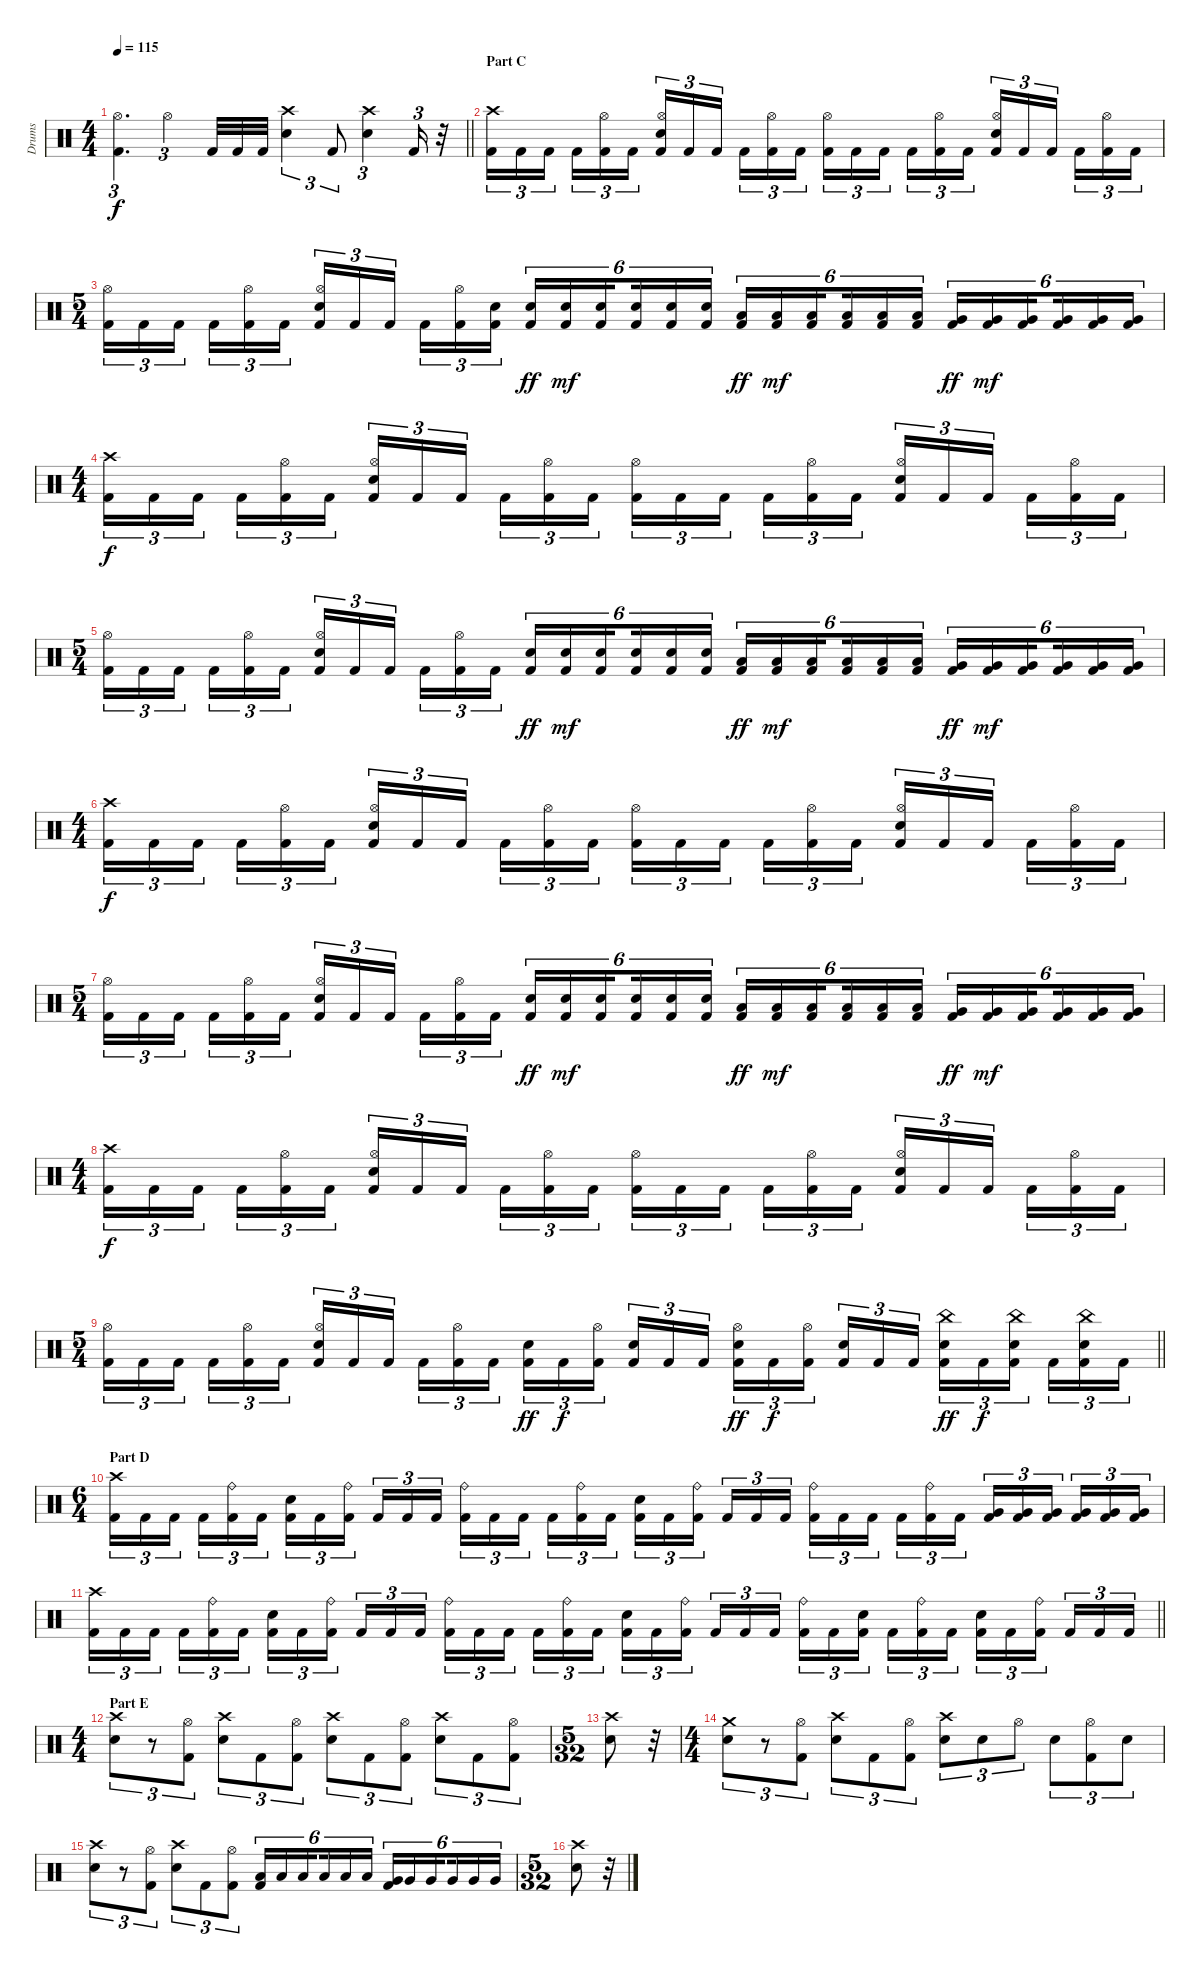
\track ("Drums" "Drums") {instrument percussion}
\staff {score}
\articulation defaults
\ts (4 4)
\tempo 115
\clef neutral
\barLineRight lightlight
\ks c
("Kick (hit) 2" "Hi-Hat (open)").4{d tu (3 2) dy f} "Hi-Hat (open)".4{tu (3 2)} "Kick (hit) 2".32 "Kick (hit) 2".32 "Kick (hit) 2".32 ("Snare (hit) 2" "Crash high (hit)").4{tu (3 2)} "Kick (hit) 2".8{tu (3 2)} ("Snare (hit) 2" "Crash high (hit)").4{tu (3 2)} "Kick (hit) 2".16{tu (3 2)} r.32 |
\section ("" "Part C")
("Kick (hit) 2" "Crash high (hit)").16{tu (3 2)} "Kick (hit) 2".16{tu (3 2)} "Kick (hit) 2".16{tu (3 2) beam splitsecondary} "Kick (hit) 2".16{tu (3 2)} ("Kick (hit) 2" "Hi-Hat (open)").16{tu (3 2)} "Kick (hit) 2".16{tu (3 2)} ("Kick (hit) 2" "Hi-Hat (open)" "Snare (hit) 2").16{tu (3 2)} "Kick (hit) 2".16{tu (3 2)} "Kick (hit) 2".16{tu (3 2) beam splitsecondary} "Kick (hit) 2".16{tu (3 2)} ("Kick (hit) 2" "Hi-Hat (open)").16{tu (3 2)} "Kick (hit) 2".16{tu (3 2)} ("Kick (hit) 2" "Hi-Hat (open)").16{tu (3 2)} "Kick (hit) 2".16{tu (3 2)} "Kick (hit) 2".16{tu (3 2) beam splitsecondary} "Kick (hit) 2".16{tu (3 2)} ("Kick (hit) 2" "Hi-Hat (open)").16{tu (3 2)} "Kick (hit) 2".16{tu (3 2)} ("Kick (hit) 2" "Hi-Hat (open)" "Snare (hit) 2").16{tu (3 2)} "Kick (hit) 2".16{tu (3 2)} "Kick (hit) 2".16{tu (3 2) beam splitsecondary} "Kick (hit) 2".16{tu (3 2)} ("Kick (hit) 2" "Hi-Hat (open)").16{tu (3 2)} "Kick (hit) 2".16{tu (3 2)} |
\ts (5 4)
("Kick (hit) 2" "Hi-Hat (open)").16{tu (3 2)} "Kick (hit) 2".16{tu (3 2)} "Kick (hit) 2".16{tu (3 2) beam splitsecondary} "Kick (hit) 2".16{tu (3 2)} ("Kick (hit) 2" "Hi-Hat (open)").16{tu (3 2)} "Kick (hit) 2".16{tu (3 2)} ("Kick (hit) 2" "Hi-Hat (open)" "Snare (hit) 2").16{tu (3 2)} "Kick (hit) 2".16{tu (3 2)} "Kick (hit) 2".16{tu (3 2) beam splitsecondary} "Kick (hit) 2".16{tu (3 2)} ("Kick (hit) 2" "Hi-Hat (open)").16{tu (3 2)} ("Kick (hit) 2" "Snare (hit) 2").16{tu (3 2)} ("Kick (hit) 2" "Snare (hit) 2").16{tu (6 4) dy ff} ("Kick (hit) 2" "Snare (hit) 2").16{tu (6 4) dy mf} ("Snare (hit) 2" "Kick (hit) 2").16{tu (6 4) beam splitsecondary} ("Snare (hit) 2" "Kick (hit) 2").16{tu (6 4)} ("Snare (hit) 2" "Kick (hit) 2").16{tu (6 4)} ("Snare (hit) 2" "Kick (hit) 2").16{tu (6 4)} ("Low Tom (hit)" "Kick (hit) 2").16{tu (6 4) dy ff} ("Low Tom (hit)" "Kick (hit) 2").16{tu (6 4) dy mf} ("Low Tom (hit)" "Kick (hit) 2").16{tu (6 4) beam splitsecondary} ("Low Tom (hit)" "Kick (hit) 2").16{tu (6 4)} ("Low Tom (hit)" "Kick (hit) 2").16{tu (6 4)} ("Low Tom (hit)" "Kick (hit) 2").16{tu (6 4)} ("Very Low Tom (hit)" "Kick (hit) 2").16{tu (6 4) dy ff} ("Very Low Tom (hit)" "Kick (hit) 2").16{tu (6 4) dy mf} ("Very Low Tom (hit)" "Kick (hit) 2").16{tu (6 4) beam splitsecondary} ("Very Low Tom (hit)" "Kick (hit) 2").16{tu (6 4)} ("Very Low Tom (hit)" "Kick (hit) 2").16{tu (6 4)} ("Very Low Tom (hit)" "Kick (hit) 2").16{tu (6 4)} |
\ts (4 4)
("Kick (hit) 2" "Crash high (hit)").16{tu (3 2) dy f} "Kick (hit) 2".16{tu (3 2)} "Kick (hit) 2".16{tu (3 2) beam splitsecondary} "Kick (hit) 2".16{tu (3 2)} ("Kick (hit) 2" "Hi-Hat (open)").16{tu (3 2)} "Kick (hit) 2".16{tu (3 2)} ("Kick (hit) 2" "Hi-Hat (open)" "Snare (hit) 2").16{tu (3 2)} "Kick (hit) 2".16{tu (3 2)} "Kick (hit) 2".16{tu (3 2) beam splitsecondary} "Kick (hit) 2".16{tu (3 2)} ("Kick (hit) 2" "Hi-Hat (open)").16{tu (3 2)} "Kick (hit) 2".16{tu (3 2)} ("Kick (hit) 2" "Hi-Hat (open)").16{tu (3 2)} "Kick (hit) 2".16{tu (3 2)} "Kick (hit) 2".16{tu (3 2) beam splitsecondary} "Kick (hit) 2".16{tu (3 2)} ("Kick (hit) 2" "Hi-Hat (open)").16{tu (3 2)} "Kick (hit) 2".16{tu (3 2)} ("Kick (hit) 2" "Hi-Hat (open)" "Snare (hit) 2").16{tu (3 2)} "Kick (hit) 2".16{tu (3 2)} "Kick (hit) 2".16{tu (3 2) beam splitsecondary} "Kick (hit) 2".16{tu (3 2)} ("Kick (hit) 2" "Hi-Hat (open)").16{tu (3 2)} "Kick (hit) 2".16{tu (3 2)} |
\ts (5 4)
("Kick (hit) 2" "Hi-Hat (open)").16{tu (3 2)} "Kick (hit) 2".16{tu (3 2)} "Kick (hit) 2".16{tu (3 2) beam splitsecondary} "Kick (hit) 2".16{tu (3 2)} ("Kick (hit) 2" "Hi-Hat (open)").16{tu (3 2)} "Kick (hit) 2".16{tu (3 2)} ("Kick (hit) 2" "Hi-Hat (open)" "Snare (hit) 2").16{tu (3 2)} "Kick (hit) 2".16{tu (3 2)} "Kick (hit) 2".16{tu (3 2) beam splitsecondary} "Kick (hit) 2".16{tu (3 2)} ("Kick (hit) 2" "Hi-Hat (open)").16{tu (3 2)} "Kick (hit) 2".16{tu (3 2)} ("Kick (hit) 2" "Snare (hit) 2").16{tu (6 4) dy ff} ("Kick (hit) 2" "Snare (hit) 2").16{tu (6 4) dy mf} ("Snare (hit) 2" "Kick (hit) 2").16{tu (6 4) beam splitsecondary} ("Snare (hit) 2" "Kick (hit) 2").16{tu (6 4)} ("Snare (hit) 2" "Kick (hit) 2").16{tu (6 4)} ("Snare (hit) 2" "Kick (hit) 2").16{tu (6 4)} ("Low Tom (hit)" "Kick (hit) 2").16{tu (6 4) dy ff} ("Low Tom (hit)" "Kick (hit) 2").16{tu (6 4) dy mf} ("Low Tom (hit)" "Kick (hit) 2").16{tu (6 4) beam splitsecondary} ("Low Tom (hit)" "Kick (hit) 2").16{tu (6 4)} ("Low Tom (hit)" "Kick (hit) 2").16{tu (6 4)} ("Low Tom (hit)" "Kick (hit) 2").16{tu (6 4)} ("Very Low Tom (hit)" "Kick (hit) 2").16{tu (6 4) dy ff} ("Very Low Tom (hit)" "Kick (hit) 2").16{tu (6 4) dy mf} ("Very Low Tom (hit)" "Kick (hit) 2").16{tu (6 4) beam splitsecondary} ("Very Low Tom (hit)" "Kick (hit) 2").16{tu (6 4)} ("Very Low Tom (hit)" "Kick (hit) 2").16{tu (6 4)} ("Very Low Tom (hit)" "Kick (hit) 2").16{tu (6 4)} |
\ts (4 4)
("Kick (hit) 2" "Crash high (hit)").16{tu (3 2) dy f} "Kick (hit) 2".16{tu (3 2)} "Kick (hit) 2".16{tu (3 2) beam splitsecondary} "Kick (hit) 2".16{tu (3 2)} ("Kick (hit) 2" "Hi-Hat (open)").16{tu (3 2)} "Kick (hit) 2".16{tu (3 2)} ("Kick (hit) 2" "Hi-Hat (open)" "Snare (hit) 2").16{tu (3 2)} "Kick (hit) 2".16{tu (3 2)} "Kick (hit) 2".16{tu (3 2) beam splitsecondary} "Kick (hit) 2".16{tu (3 2)} ("Kick (hit) 2" "Hi-Hat (open)").16{tu (3 2)} "Kick (hit) 2".16{tu (3 2)} ("Kick (hit) 2" "Hi-Hat (open)").16{tu (3 2)} "Kick (hit) 2".16{tu (3 2)} "Kick (hit) 2".16{tu (3 2) beam splitsecondary} "Kick (hit) 2".16{tu (3 2)} ("Kick (hit) 2" "Hi-Hat (open)").16{tu (3 2)} "Kick (hit) 2".16{tu (3 2)} ("Kick (hit) 2" "Hi-Hat (open)" "Snare (hit) 2").16{tu (3 2)} "Kick (hit) 2".16{tu (3 2)} "Kick (hit) 2".16{tu (3 2) beam splitsecondary} "Kick (hit) 2".16{tu (3 2)} ("Kick (hit) 2" "Hi-Hat (open)").16{tu (3 2)} "Kick (hit) 2".16{tu (3 2)} |
\ts (5 4)
("Kick (hit) 2" "Hi-Hat (open)").16{tu (3 2)} "Kick (hit) 2".16{tu (3 2)} "Kick (hit) 2".16{tu (3 2) beam splitsecondary} "Kick (hit) 2".16{tu (3 2)} ("Kick (hit) 2" "Hi-Hat (open)").16{tu (3 2)} "Kick (hit) 2".16{tu (3 2)} ("Kick (hit) 2" "Hi-Hat (open)" "Snare (hit) 2").16{tu (3 2)} "Kick (hit) 2".16{tu (3 2)} "Kick (hit) 2".16{tu (3 2) beam splitsecondary} "Kick (hit) 2".16{tu (3 2)} ("Kick (hit) 2" "Hi-Hat (open)").16{tu (3 2)} "Kick (hit) 2".16{tu (3 2)} ("Kick (hit) 2" "Snare (hit) 2").16{tu (6 4) dy ff} ("Kick (hit) 2" "Snare (hit) 2").16{tu (6 4) dy mf} ("Snare (hit) 2" "Kick (hit) 2").16{tu (6 4) beam splitsecondary} ("Snare (hit) 2" "Kick (hit) 2").16{tu (6 4)} ("Snare (hit) 2" "Kick (hit) 2").16{tu (6 4)} ("Snare (hit) 2" "Kick (hit) 2").16{tu (6 4)} ("Low Tom (hit)" "Kick (hit) 2").16{tu (6 4) dy ff} ("Low Tom (hit)" "Kick (hit) 2").16{tu (6 4) dy mf} ("Low Tom (hit)" "Kick (hit) 2").16{tu (6 4) beam splitsecondary} ("Low Tom (hit)" "Kick (hit) 2").16{tu (6 4)} ("Low Tom (hit)" "Kick (hit) 2").16{tu (6 4)} ("Low Tom (hit)" "Kick (hit) 2").16{tu (6 4)} ("Very Low Tom (hit)" "Kick (hit) 2").16{tu (6 4) dy ff} ("Very Low Tom (hit)" "Kick (hit) 2").16{tu (6 4) dy mf} ("Very Low Tom (hit)" "Kick (hit) 2").16{tu (6 4) beam splitsecondary} ("Very Low Tom (hit)" "Kick (hit) 2").16{tu (6 4)} ("Very Low Tom (hit)" "Kick (hit) 2").16{tu (6 4)} ("Very Low Tom (hit)" "Kick (hit) 2").16{tu (6 4)} |
\ts (4 4)
("Kick (hit) 2" "Crash high (hit)").16{tu (3 2) dy f} "Kick (hit) 2".16{tu (3 2)} "Kick (hit) 2".16{tu (3 2) beam splitsecondary} "Kick (hit) 2".16{tu (3 2)} ("Kick (hit) 2" "Hi-Hat (open)").16{tu (3 2)} "Kick (hit) 2".16{tu (3 2)} ("Kick (hit) 2" "Hi-Hat (open)" "Snare (hit) 2").16{tu (3 2)} "Kick (hit) 2".16{tu (3 2)} "Kick (hit) 2".16{tu (3 2) beam splitsecondary} "Kick (hit) 2".16{tu (3 2)} ("Kick (hit) 2" "Hi-Hat (open)").16{tu (3 2)} "Kick (hit) 2".16{tu (3 2)} ("Kick (hit) 2" "Hi-Hat (open)").16{tu (3 2)} "Kick (hit) 2".16{tu (3 2)} "Kick (hit) 2".16{tu (3 2) beam splitsecondary} "Kick (hit) 2".16{tu (3 2)} ("Kick (hit) 2" "Hi-Hat (open)").16{tu (3 2)} "Kick (hit) 2".16{tu (3 2)} ("Kick (hit) 2" "Hi-Hat (open)" "Snare (hit) 2").16{tu (3 2)} "Kick (hit) 2".16{tu (3 2)} "Kick (hit) 2".16{tu (3 2) beam splitsecondary} "Kick (hit) 2".16{tu (3 2)} ("Kick (hit) 2" "Hi-Hat (open)").16{tu (3 2)} "Kick (hit) 2".16{tu (3 2)} |
\ts (5 4)
\barLineRight lightlight
("Kick (hit) 2" "Hi-Hat (open)").16{tu (3 2)} "Kick (hit) 2".16{tu (3 2)} "Kick (hit) 2".16{tu (3 2) beam splitsecondary} "Kick (hit) 2".16{tu (3 2)} ("Kick (hit) 2" "Hi-Hat (open)").16{tu (3 2)} "Kick (hit) 2".16{tu (3 2)} ("Kick (hit) 2" "Hi-Hat (open)" "Snare (hit) 2").16{tu (3 2)} "Kick (hit) 2".16{tu (3 2)} "Kick (hit) 2".16{tu (3 2) beam splitsecondary} "Kick (hit) 2".16{tu (3 2)} ("Kick (hit) 2" "Hi-Hat (open)").16{tu (3 2)} "Kick (hit) 2".16{tu (3 2)} ("Kick (hit) 2" "Snare (hit) 2").16{tu (3 2) dy ff} "Kick (hit) 2".16{tu (3 2) dy f} ("Hi-Hat (open)" "Kick (hit) 2").16{tu (3 2) beam splitsecondary} ("Snare (hit) 2" "Kick (hit) 2").16{tu (3 2)} "Kick (hit) 2".16{tu (3 2)} "Kick (hit) 2".16{tu (3 2)} ("Snare (hit) 2" "Kick (hit) 2" "Hi-Hat (open)").16{tu (3 2) dy ff} "Kick (hit) 2".16{tu (3 2) dy f} ("Hi-Hat (open)" "Kick (hit) 2").16{tu (3 2) beam splitsecondary} ("Snare (hit) 2" "Kick (hit) 2").16{tu (3 2)} "Kick (hit) 2".16{tu (3 2)} "Kick (hit) 2".16{tu (3 2)} ("Snare (hit) 2" "Kick (hit) 2" "China (hit)").16{tu (3 2) dy ff} "Kick (hit) 2".16{tu (3 2) dy f} ("Snare (hit) 2" "Kick (hit) 2" "China (hit)").16{tu (3 2) beam splitsecondary} "Kick (hit) 2".16{tu (3 2)} ("Snare (hit) 2" "Kick (hit) 2" "China (hit)").16{tu (3 2)} "Kick (hit) 2".16{tu (3 2)} |
\ts (6 4)
\section ("" "Part D")
("Kick (hit) 2" "Crash high (hit)").16{tu (3 2)} "Kick (hit) 2".16{tu (3 2)} "Kick (hit) 2".16{tu (3 2) beam splitsecondary} "Kick (hit) 2".16{tu (3 2)} ("Kick (hit) 2" "Ride (bell)").16{tu (3 2)} "Kick (hit) 2".16{tu (3 2) beam splitsecondary} ("Kick (hit) 2" "Snare (hit) 2").16{tu (3 2)} "Kick (hit) 2".16{tu (3 2)} ("Kick (hit) 2" "Ride (bell)").16{tu (3 2) beam splitsecondary} "Kick (hit) 2".16{tu (3 2)} "Kick (hit) 2".16{tu (3 2)} "Kick (hit) 2".16{tu (3 2) beam splitsecondary} ("Kick (hit) 2" "Ride (bell)").16{tu (3 2)} "Kick (hit) 2".16{tu (3 2)} "Kick (hit) 2".16{tu (3 2) beam splitsecondary} "Kick (hit) 2".16{tu (3 2)} ("Kick (hit) 2" "Ride (bell)").16{tu (3 2)} "Kick (hit) 2".16{tu (3 2)} ("Kick (hit) 2" "Snare (hit) 2").16{tu (3 2)} "Kick (hit) 2".16{tu (3 2)} ("Kick (hit) 2" "Ride (bell)").16{tu (3 2) beam splitsecondary} "Kick (hit) 2".16{tu (3 2)} "Kick (hit) 2".16{tu (3 2)} "Kick (hit) 2".16{tu (3 2) beam splitsecondary} ("Kick (hit) 2" "Ride (bell)").16{tu (3 2)} "Kick (hit) 2".16{tu (3 2)} "Kick (hit) 2".16{tu (3 2) beam splitsecondary} "Kick (hit) 2".16{tu (3 2)} ("Kick (hit) 2" "Ride (bell)").16{tu (3 2)} "Kick (hit) 2".16{tu (3 2) beam splitsecondary} ("Very Low Tom (hit)" "Kick (hit) 2").16{tu (3 2)} ("Very Low Tom (hit)" "Kick (hit) 2").16{tu (3 2)} ("Very Low Tom (hit)" "Kick (hit) 2").16{tu (3 2) beam splitsecondary} ("Very Low Tom (hit)" "Kick (hit) 2").16{tu (3 2)} ("Very Low Tom (hit)" "Kick (hit) 2").16{tu (3 2)} ("Very Low Tom (hit)" "Kick (hit) 2").16{tu (3 2)} |
\barLineRight lightlight
("Kick (hit) 2" "Crash high (hit)").16{tu (3 2)} "Kick (hit) 2".16{tu (3 2)} "Kick (hit) 2".16{tu (3 2) beam splitsecondary} "Kick (hit) 2".16{tu (3 2)} ("Kick (hit) 2" "Ride (bell)").16{tu (3 2)} "Kick (hit) 2".16{tu (3 2) beam splitsecondary} ("Kick (hit) 2" "Snare (hit) 2").16{tu (3 2)} "Kick (hit) 2".16{tu (3 2)} ("Kick (hit) 2" "Ride (bell)").16{tu (3 2) beam splitsecondary} "Kick (hit) 2".16{tu (3 2)} "Kick (hit) 2".16{tu (3 2)} "Kick (hit) 2".16{tu (3 2) beam splitsecondary} ("Kick (hit) 2" "Ride (bell)").16{tu (3 2)} "Kick (hit) 2".16{tu (3 2)} "Kick (hit) 2".16{tu (3 2) beam splitsecondary} "Kick (hit) 2".16{tu (3 2)} ("Kick (hit) 2" "Ride (bell)").16{tu (3 2)} "Kick (hit) 2".16{tu (3 2)} ("Kick (hit) 2" "Snare (hit) 2").16{tu (3 2)} "Kick (hit) 2".16{tu (3 2)} ("Kick (hit) 2" "Ride (bell)").16{tu (3 2) beam splitsecondary} "Kick (hit) 2".16{tu (3 2)} "Kick (hit) 2".16{tu (3 2)} "Kick (hit) 2".16{tu (3 2) beam splitsecondary} ("Kick (hit) 2" "Ride (bell)").16{tu (3 2)} "Kick (hit) 2".16{tu (3 2)} ("Kick (hit) 2" "Snare (hit) 2").16{tu (3 2) beam splitsecondary} "Kick (hit) 2".16{tu (3 2)} ("Kick (hit) 2" "Ride (bell)").16{tu (3 2)} "Kick (hit) 2".16{tu (3 2) beam splitsecondary} ("Snare (hit) 2" "Kick (hit) 2").16{tu (3 2)} "Kick (hit) 2".16{tu (3 2)} ("Ride (bell)" "Kick (hit) 2").16{tu (3 2) beam splitsecondary} "Kick (hit) 2".16{tu (3 2)} "Kick (hit) 2".16{tu (3 2)} "Kick (hit) 2".16{tu (3 2)} |
\ts (4 4)
\section ("" "Part E")
("Crash high (hit)" "Snare (hit) 2").8{tu (3 2)} r.8{tu (3 2)} ("Hi-Hat (open)" "Kick (hit) 2").8{tu (3 2)} ("Crash high (hit)" "Snare (hit) 2").8{tu (3 2)} "Kick (hit) 2".8{tu (3 2)} ("Kick (hit) 2" "Hi-Hat (open)").8{tu (3 2)} ("Snare (hit) 2" "Crash high (hit)").8{tu (3 2)} "Kick (hit) 2".8{tu (3 2)} ("Kick (hit) 2" "Hi-Hat (open)").8{tu (3 2)} ("Snare (hit) 2" "Crash high (hit)").8{tu (3 2)} "Kick (hit) 2".8{tu (3 2)} ("Kick (hit) 2" "Hi-Hat (open)").8{tu (3 2)} |
\ts (5 32)
("Snare (hit) 2" "Crash high (hit)").8 r.32 |
\ts (4 4)
("Crash medium (hit)" "Snare (hit) 2").8{tu (3 2)} r.8{tu (3 2)} ("Hi-Hat (open)" "Kick (hit) 2").8{tu (3 2)} ("Crash high (hit)" "Snare (hit) 2").8{tu (3 2)} "Kick (hit) 2".8{tu (3 2)} ("Kick (hit) 2" "Hi-Hat (open)").8{tu (3 2)} ("Snare (hit) 2" "Crash high (hit)").8{tu (3 2)} "Snare (hit) 2".8{tu (3 2)} "Hi-Hat (open)".8{tu (3 2)} "Snare (hit) 2".8{tu (3 2)} ("Hi-Hat (open)" "Kick (hit) 2").8{tu (3 2)} "Snare (hit) 2".8{tu (3 2)} |
("Crash high (hit)" "Snare (hit) 2").8{tu (3 2)} r.8{tu (3 2)} ("Hi-Hat (open)" "Kick (hit) 2").8{tu (3 2)} ("Crash high (hit)" "Snare (hit) 2").8{tu (3 2)} "Kick (hit) 2".8{tu (3 2)} ("Kick (hit) 2" "Hi-Hat (open)").8{tu (3 2)} ("Kick (hit) 2" "Low Tom (hit)").16{tu (6 4)} "Low Tom (hit)".16{tu (6 4)} "Low Tom (hit)".16{tu (6 4) beam splitsecondary} "Low Tom (hit)".16{tu (6 4)} "Low Tom (hit)".16{tu (6 4)} "Low Tom (hit)".16{tu (6 4)} ("Kick (hit) 2" "Very Low Tom (hit)").16{tu (6 4)} "Very Low Tom (hit)".16{tu (6 4)} "Very Low Tom (hit)".16{tu (6 4) beam splitsecondary} "Very Low Tom (hit)".16{tu (6 4)} "Very Low Tom (hit)".16{tu (6 4)} "Very Low Tom (hit)".16{tu (6 4)} |
\ts (5 32)
("Snare (hit) 2" "Crash high (hit)").8 r.32
